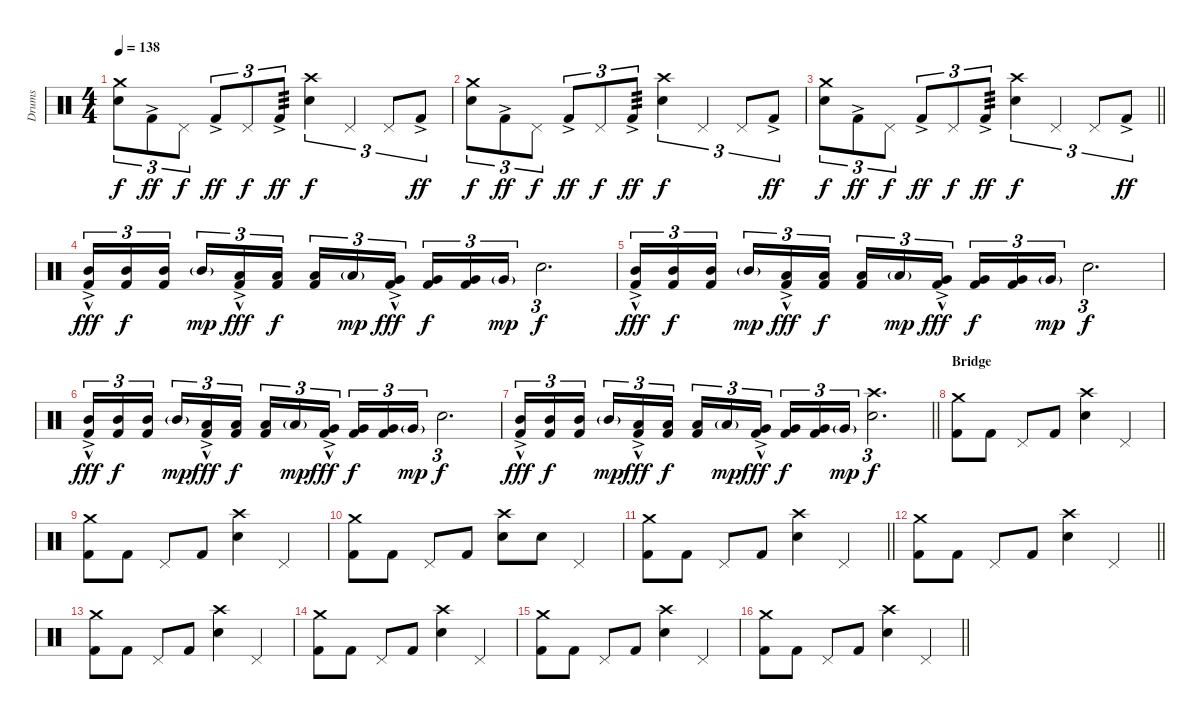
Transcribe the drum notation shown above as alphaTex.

\track ("Drums" "Drums") {instrument percussion}
\staff {score}
\articulation defaults
\ts (4 4)
\tempo 138
\clef neutral
\ks c
("Snare (hit) 2" "Crash medium (hit)").8{tu (3 2) dy f} "Kick (hit) 2"{ac}.8{tu (3 2) dy ff} "Pedal Hi-Hat (hit)".8{tu (3 2) dy f} "Kick (hit) 2"{ac}.8{tu (3 2) dy ff} "Pedal Hi-Hat (hit)".8{tu (3 2) dy f} "Kick (hit) 2"{ac}.8{tu (3 2) tp 3 dy ff} ("Snare (hit) 2" "Crash high (hit)").4{tu (3 2) dy f} "Pedal Hi-Hat (hit)".4{tu (3 2)} "Pedal Hi-Hat (hit)".8{tu (3 2)} "Kick (hit) 2"{ac}.8{tu (3 2) dy ff} |
("Snare (hit) 2" "Crash medium (hit)").8{tu (3 2) dy f} "Kick (hit) 2"{ac}.8{tu (3 2) dy ff} "Pedal Hi-Hat (hit)".8{tu (3 2) dy f} "Kick (hit) 2"{ac}.8{tu (3 2) dy ff} "Pedal Hi-Hat (hit)".8{tu (3 2) dy f} "Kick (hit) 2"{ac}.8{tu (3 2) tp 3 dy ff} ("Snare (hit) 2" "Crash high (hit)").4{tu (3 2) dy f} "Pedal Hi-Hat (hit)".4{tu (3 2)} "Pedal Hi-Hat (hit)".8{tu (3 2)} "Kick (hit) 2"{ac}.8{tu (3 2) dy ff} |
\barLineRight lightlight
("Snare (hit) 2" "Crash medium (hit)").8{tu (3 2) dy f} "Kick (hit) 2"{ac}.8{tu (3 2) dy ff} "Pedal Hi-Hat (hit)".8{tu (3 2) dy f} "Kick (hit) 2"{ac}.8{tu (3 2) dy ff} "Pedal Hi-Hat (hit)".8{tu (3 2) dy f} "Kick (hit) 2"{ac}.8{tu (3 2) tp 3 dy ff} ("Snare (hit) 2" "Crash high (hit)").4{tu (3 2) dy f} "Pedal Hi-Hat (hit)".4{tu (3 2)} "Pedal Hi-Hat (hit)".8{tu (3 2)} "Kick (hit) 2"{ac}.8{tu (3 2) dy ff} |
\section ("" "")
("Kick (hit) 2"{ac} "Mid Tom (hit)"{hac}).16{tu (3 2) dy fff} ("Kick (hit) 2" "Mid Tom (hit)").16{tu (3 2) dy f} ("Kick (hit) 2" "Mid Tom (hit)").16{tu (3 2) beam splitsecondary} "Mid Tom (hit)"{g}.16{tu (3 2) dy mp} ("Kick (hit) 2"{ac} "Low Tom (hit)"{hac}).16{tu (3 2) dy fff} ("Kick (hit) 2" "Low Tom (hit)").16{tu (3 2) dy f} ("Kick (hit) 2" "Low Tom (hit)").16{tu (3 2)} "Low Tom (hit)"{g}.16{tu (3 2) dy mp} ("Kick (hit) 2"{ac} "Very Low Tom (hit)"{hac}).16{tu (3 2) dy fff beam splitsecondary} ("Kick (hit) 2" "Very Low Tom (hit)").16{tu (3 2) dy f} ("Kick (hit) 2" "Very Low Tom (hit)").16{tu (3 2)} "Very Low Tom (hit)"{g}.16{tu (3 2) dy mp} "Snare (hit) 2".2{d tu (3 2) dy f} |
("Kick (hit) 2"{ac} "Mid Tom (hit)"{hac}).16{tu (3 2) dy fff} ("Kick (hit) 2" "Mid Tom (hit)").16{tu (3 2) dy f} ("Kick (hit) 2" "Mid Tom (hit)").16{tu (3 2) beam splitsecondary} "Mid Tom (hit)"{g}.16{tu (3 2) dy mp} ("Kick (hit) 2"{ac} "Low Tom (hit)"{hac}).16{tu (3 2) dy fff} ("Kick (hit) 2" "Low Tom (hit)").16{tu (3 2) dy f} ("Kick (hit) 2" "Low Tom (hit)").16{tu (3 2)} "Low Tom (hit)"{g}.16{tu (3 2) dy mp} ("Kick (hit) 2"{ac} "Very Low Tom (hit)"{hac}).16{tu (3 2) dy fff beam splitsecondary} ("Kick (hit) 2" "Very Low Tom (hit)").16{tu (3 2) dy f} ("Kick (hit) 2" "Very Low Tom (hit)").16{tu (3 2)} "Very Low Tom (hit)"{g}.16{tu (3 2) dy mp} "Snare (hit) 2".2{d tu (3 2) dy f} |
("Kick (hit) 2"{ac} "Mid Tom (hit)"{hac}).16{tu (3 2) dy fff} ("Kick (hit) 2" "Mid Tom (hit)").16{tu (3 2) dy f} ("Kick (hit) 2" "Mid Tom (hit)").16{tu (3 2) beam splitsecondary} "Mid Tom (hit)"{g}.16{tu (3 2) dy mp} ("Kick (hit) 2"{ac} "Low Tom (hit)"{hac}).16{tu (3 2) dy fff} ("Kick (hit) 2" "Low Tom (hit)").16{tu (3 2) dy f} ("Kick (hit) 2" "Low Tom (hit)").16{tu (3 2)} "Low Tom (hit)"{g}.16{tu (3 2) dy mp} ("Kick (hit) 2"{ac} "Very Low Tom (hit)"{hac}).16{tu (3 2) dy fff beam splitsecondary} ("Kick (hit) 2" "Very Low Tom (hit)").16{tu (3 2) dy f} ("Kick (hit) 2" "Very Low Tom (hit)").16{tu (3 2)} "Very Low Tom (hit)"{g}.16{tu (3 2) dy mp} "Snare (hit) 2".2{d tu (3 2) dy f} |
\barLineRight lightlight
("Kick (hit) 2"{ac} "Mid Tom (hit)"{hac}).16{tu (3 2) dy fff} ("Kick (hit) 2" "Mid Tom (hit)").16{tu (3 2) dy f} ("Kick (hit) 2" "Mid Tom (hit)").16{tu (3 2) beam splitsecondary} "Mid Tom (hit)"{g}.16{tu (3 2) dy mp} ("Kick (hit) 2"{ac} "Low Tom (hit)"{hac}).16{tu (3 2) dy fff} ("Kick (hit) 2" "Low Tom (hit)").16{tu (3 2) dy f} ("Kick (hit) 2" "Low Tom (hit)").16{tu (3 2)} "Low Tom (hit)"{g}.16{tu (3 2) dy mp} ("Kick (hit) 2"{ac} "Very Low Tom (hit)"{hac}).16{tu (3 2) dy fff beam splitsecondary} ("Kick (hit) 2" "Very Low Tom (hit)").16{tu (3 2) dy f} ("Kick (hit) 2" "Very Low Tom (hit)").16{tu (3 2)} "Very Low Tom (hit)"{g}.16{tu (3 2) dy mp} ("Snare (hit) 2" "Crash high (hit)").2{d tu (3 2) dy f} |
\section ("" "Bridge")
("Kick (hit) 2" "Crash medium (hit)").8 "Kick (hit) 2".8 "Pedal Hi-Hat (hit)".8 "Kick (hit) 2".8 ("Snare (hit) 2" "Crash high (hit)").4 "Pedal Hi-Hat (hit)".4 |
("Kick (hit) 2" "Crash medium (hit)").8 "Kick (hit) 2".8 "Pedal Hi-Hat (hit)".8 "Kick (hit) 2".8 ("Snare (hit) 2" "Crash high (hit)").4 "Pedal Hi-Hat (hit)".4 |
("Kick (hit) 2" "Crash medium (hit)").8 "Kick (hit) 2".8 "Pedal Hi-Hat (hit)".8 "Kick (hit) 2".8 ("Snare (hit) 2" "Crash high (hit)").8 "Snare (hit) 2".8 "Pedal Hi-Hat (hit)".4 |
\barLineRight lightlight
("Kick (hit) 2" "Crash medium (hit)").8 "Kick (hit) 2".8 "Pedal Hi-Hat (hit)".8 "Kick (hit) 2".8 ("Snare (hit) 2" "Crash high (hit)").4 "Pedal Hi-Hat (hit)".4 |
\section ("" "")
\barLineRight lightlight
("Kick (hit) 2" "Crash medium (hit)").8 "Kick (hit) 2".8 "Pedal Hi-Hat (hit)".8 "Kick (hit) 2".8 ("Snare (hit) 2" "Crash high (hit)").4 "Pedal Hi-Hat (hit)".4 |
\section ("" "")
("Kick (hit) 2" "Crash medium (hit)").8 "Kick (hit) 2".8 "Pedal Hi-Hat (hit)".8 "Kick (hit) 2".8 ("Snare (hit) 2" "Crash high (hit)").4 "Pedal Hi-Hat (hit)".4 |
("Kick (hit) 2" "Crash medium (hit)").8 "Kick (hit) 2".8 "Pedal Hi-Hat (hit)".8 "Kick (hit) 2".8 ("Snare (hit) 2" "Crash high (hit)").4 "Pedal Hi-Hat (hit)".4 |
("Kick (hit) 2" "Crash medium (hit)").8 "Kick (hit) 2".8 "Pedal Hi-Hat (hit)".8 "Kick (hit) 2".8 ("Snare (hit) 2" "Crash high (hit)").4 "Pedal Hi-Hat (hit)".4 |
\barLineRight lightlight
("Kick (hit) 2" "Crash medium (hit)").8 "Kick (hit) 2".8 "Pedal Hi-Hat (hit)".8 "Kick (hit) 2".8 ("Snare (hit) 2" "Crash high (hit)").4 "Pedal Hi-Hat (hit)".4
